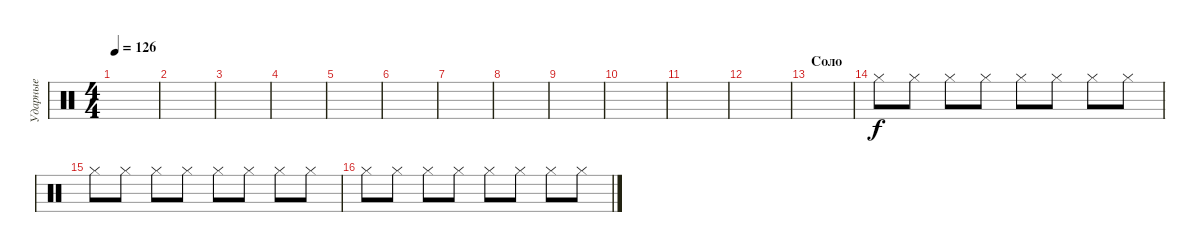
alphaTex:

\track ("Ударные" "Ударные") {instrument percussion}
\staff {score}
\articulation defaults
\ts (4 4)
\tempo 126
\clef neutral
\ks c
|
|
|
|
|
|
|
|
|
|
|
|
\section ("" "Соло")
|
"Hi-Hat (closed)".8 "Hi-Hat (closed)".8 "Hi-Hat (closed)".8 "Hi-Hat (closed)".8 "Hi-Hat (closed)".8 "Hi-Hat (closed)".8 "Hi-Hat (closed)".8 "Hi-Hat (closed)".8 |
"Hi-Hat (closed)".8 "Hi-Hat (closed)".8 "Hi-Hat (closed)".8 "Hi-Hat (closed)".8 "Hi-Hat (closed)".8 "Hi-Hat (closed)".8 "Hi-Hat (closed)".8 "Hi-Hat (closed)".8 |
"Hi-Hat (closed)".8 "Hi-Hat (closed)".8 "Hi-Hat (closed)".8 "Hi-Hat (closed)".8 "Hi-Hat (closed)".8 "Hi-Hat (closed)".8 "Hi-Hat (closed)".8 "Hi-Hat (closed)".8
